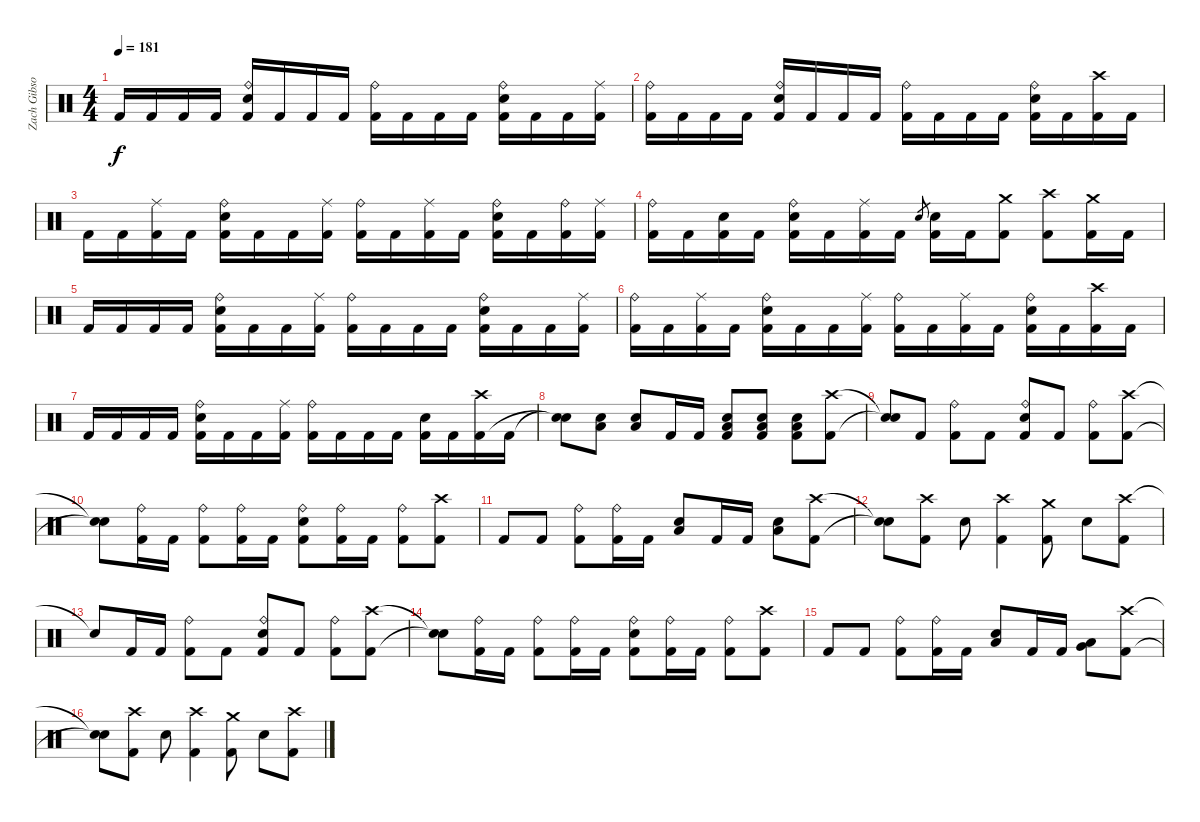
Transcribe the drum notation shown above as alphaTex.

\track ("Zach Gibson (Drums)" "Zach Gibso") {instrument percussion}
\staff {score}
\articulation defaults
\ts (4 4)
\tempo 181
\clef neutral
\ks c "Kick (hit) 2".16{dy f} "Kick (hit) 2".16 "Kick (hit) 2".16 "Kick (hit) 2".16
("Ride (bell)" "Snare (hit) 2" "Kick (hit) 2").16 "Kick (hit) 2".16 "Kick (hit) 2".16 "Kick (hit) 2".16 ("Ride (bell)" "Kick (hit) 2").16 "Kick (hit) 2".16 "Kick (hit) 2".16 "Kick (hit) 2".16 ("Ride (bell)" "Snare (hit) 2" "Kick (hit) 2").16 "Kick (hit) 2".16 "Kick (hit) 2".16 ("Ride (middle)" "Kick (hit) 2").16 |
("Ride (bell)" "Kick (hit) 2").16 "Kick (hit) 2".16 "Kick (hit) 2".16 "Kick (hit) 2".16 ("Ride (bell)" "Snare (hit) 2" "Kick (hit) 2").16 "Kick (hit) 2".16 "Kick (hit) 2".16 "Kick (hit) 2".16 ("Ride (bell)" "Kick (hit) 2").16 "Kick (hit) 2".16 "Kick (hit) 2".16 "Kick (hit) 2".16 ("Ride (bell)" "Snare (hit) 2" "Kick (hit) 2").16 "Kick (hit) 2".16 ("Crash high (hit)" "Kick (hit) 2").16 "Kick (hit) 2".16 |
"Kick (hit) 2".16 "Kick (hit) 2".16 ("Ride (middle)" "Kick (hit) 2").16 "Kick (hit) 2".16 ("Ride (bell)" "Snare (hit) 2" "Kick (hit) 2").16 "Kick (hit) 2".16 "Kick (hit) 2".16 ("Ride (middle)" "Kick (hit) 2").16 ("Ride (bell)" "Kick (hit) 2").16 "Kick (hit) 2".16 ("Ride (middle)" "Kick (hit) 2").16 "Kick (hit) 2".16 ("Ride (bell)" "Snare (hit) 2" "Kick (hit) 2").16 "Kick (hit) 2".16 ("Ride (bell)" "Kick (hit) 2").16 ("Ride (middle)" "Kick (hit) 2").16 |
("Ride (bell)" "Kick (hit) 2").16 "Kick (hit) 2".16 ("Snare (hit)" "Kick (hit) 2").16 "Kick (hit) 2".16 ("Ride (bell)" "Snare (hit) 2" "Kick (hit) 2").16 "Kick (hit) 2".16 ("Ride (middle)" "Kick (hit) 2").16 "Kick (hit) 2".16 "Snare (hit) 2".8{gr} ("Snare (hit) 2" "Kick (hit) 2").16 "Kick (hit) 2".16 ("Crash medium (hit)" "Kick (hit) 2").8 ("Crash high (hit)" "Kick (hit) 2").8 ("Crash medium (hit)" "Kick (hit) 2").16 "Kick (hit) 2".16 |
"Kick (hit) 2".16 "Kick (hit) 2".16 "Kick (hit) 2".16 "Kick (hit) 2".16 ("Ride (bell)" "Snare (hit) 2" "Kick (hit) 2").16 "Kick (hit) 2".16 "Kick (hit) 2".16 ("Ride (middle)" "Kick (hit) 2").16 ("Ride (bell)" "Kick (hit) 2").16 "Kick (hit) 2".16 "Kick (hit) 2".16 "Kick (hit) 2".16 ("Ride (bell)" "Snare (hit) 2" "Kick (hit) 2").16 "Kick (hit) 2".16 "Kick (hit) 2".16 ("Ride (middle)" "Kick (hit) 2").16 |
("Ride (bell)" "Kick (hit) 2").16 "Kick (hit) 2".16 ("Ride (middle)" "Kick (hit) 2").16 "Kick (hit) 2".16 ("Ride (bell)" "Snare (hit) 2" "Kick (hit) 2").16 "Kick (hit) 2".16 "Kick (hit) 2".16 ("Ride (middle)" "Kick (hit) 2").16 ("Ride (bell)" "Kick (hit) 2").16 "Kick (hit) 2".16 ("Ride (middle)" "Kick (hit) 2").16 "Kick (hit) 2".16 ("Ride (bell)" "Snare (hit) 2" "Kick (hit) 2").16 "Kick (hit) 2".16 ("Crash high (hit)" "Kick (hit) 2").16 "Kick (hit) 2".16 |
"Kick (hit) 2".16 "Kick (hit) 2".16 "Kick (hit) 2".16 "Kick (hit) 2".16 ("Ride (bell)" "Snare (hit) 2" "Kick (hit) 2").16 "Kick (hit) 2".16 "Kick (hit) 2".16 ("Ride (middle)" "Kick (hit) 2").16 ("Ride (bell)" "Kick (hit) 2").16 "Kick (hit) 2".16 "Kick (hit) 2".16 "Kick (hit) 2".16 ("Snare (hit) 2" "Kick (hit) 2").16 "Kick (hit) 2".16 ("Crash high (hit)" "Kick (hit) 2").16 "Kick (hit) 2".16 |
("Snare (hit)"{t} "Snare (hit)"{t}).8 ("Low Floor Tom (hit)" "Snare (hit) 2").8 ("Low Floor Tom (hit)" "Snare (hit) 2").8 "Kick (hit) 2".16 "Kick (hit) 2".16 ("Kick (hit) 2" "Low Floor Tom (hit)" "Snare (hit) 2").8 ("Kick (hit) 2" "Low Floor Tom (hit)" "Snare (hit) 2").8 ("Kick (hit) 2" "Low Floor Tom (hit)" "Snare (hit) 2").8 ("Crash high (hit)" "Kick (hit) 2").8 |
("Snare (hit)"{t} "Snare (hit)"{t}).8 "Kick (hit) 2".8 ("Ride (bell)" "Kick (hit) 2").8 "Kick (hit) 2".8 ("Ride (bell)" "Snare (hit) 2" "Kick (hit) 2").8 "Kick (hit) 2".8 ("Ride (bell)" "Kick (hit) 2").8 ("Crash high (hit)" "Kick (hit) 2").8 |
("Snare (hit)"{t} "Snare (hit)"{t}).8 ("Ride (bell)" "Kick (hit) 2").16 "Kick (hit) 2".16 ("Ride (bell)" "Kick (hit) 2").8 ("Ride (bell)" "Kick (hit) 2").16 "Kick (hit) 2".16 ("Snare (hit) 2" "Ride (bell)" "Kick (hit) 2").8 ("Ride (bell)" "Kick (hit) 2").16 "Kick (hit) 2".16 ("Ride (bell)" "Kick (hit) 2").8 ("Crash high (hit)" "Kick (hit) 2").8 |
"Kick (hit) 2".8 "Kick (hit) 2".8 ("Ride (bell)" "Kick (hit) 2").8 ("Ride (bell)" "Kick (hit) 2").16 "Kick (hit) 2".16 ("Low Floor Tom (hit)" "Snare (hit) 2").8 "Kick (hit) 2".16 "Kick (hit) 2".16 ("Low Floor Tom (hit)" "Snare (hit) 2").8 ("Crash high (hit)" "Kick (hit) 2").8 |
("Snare (hit)"{t} "Snare (hit)"{t}).8 ("Crash high (hit)" "Kick (hit) 2").8 "Snare (hit) 2".8 ("Crash high (hit)" "Kick (hit) 2").4 ("Crash medium (hit)" "Kick (hit) 2").8 "Snare (hit) 2".8 ("Crash high (hit)" "Kick (hit) 2").8 |
"Snare (hit)"{t}.8 "Kick (hit) 2".16 "Kick (hit) 2".16 ("Ride (bell)" "Kick (hit) 2").8 "Kick (hit) 2".8 ("Ride (bell)" "Kick (hit) 2" "Snare (hit) 2").8 "Kick (hit) 2".8 ("Ride (bell)" "Kick (hit) 2").8 ("Crash high (hit)" "Kick (hit) 2").8 |
("Snare (hit)"{t} "Snare (hit)"{t}).8 ("Ride (bell)" "Kick (hit) 2").16 "Kick (hit) 2".16 ("Ride (bell)" "Kick (hit) 2").8 ("Ride (bell)" "Kick (hit) 2").16 "Kick (hit) 2".16 ("Snare (hit) 2" "Ride (bell)" "Kick (hit) 2").8 ("Ride (bell)" "Kick (hit) 2").16 "Kick (hit) 2".16 ("Ride (bell)" "Kick (hit) 2").8 ("Crash high (hit)" "Kick (hit) 2").8 |
"Kick (hit) 2".8 "Kick (hit) 2".8 ("Ride (bell)" "Kick (hit) 2").8 ("Ride (bell)" "Kick (hit) 2").16 "Kick (hit) 2".16 ("Low Floor Tom (hit)" "Snare (hit) 2").8 "Kick (hit) 2".16 "Kick (hit) 2".16 ("Low Floor Tom (hit)" "Very Low Tom (hit)").8 ("Crash high (hit)" "Kick (hit) 2").8 |
("Snare (hit)"{t} "Snare (hit)"{t}).8 ("Crash high (hit)" "Kick (hit) 2").8 "Snare (hit) 2".8 ("Crash high (hit)" "Kick (hit) 2").4 ("Crash medium (hit)" "Kick (hit) 2").8 "Snare (hit) 2".8 ("Crash high (hit)" "Kick (hit) 2").8
